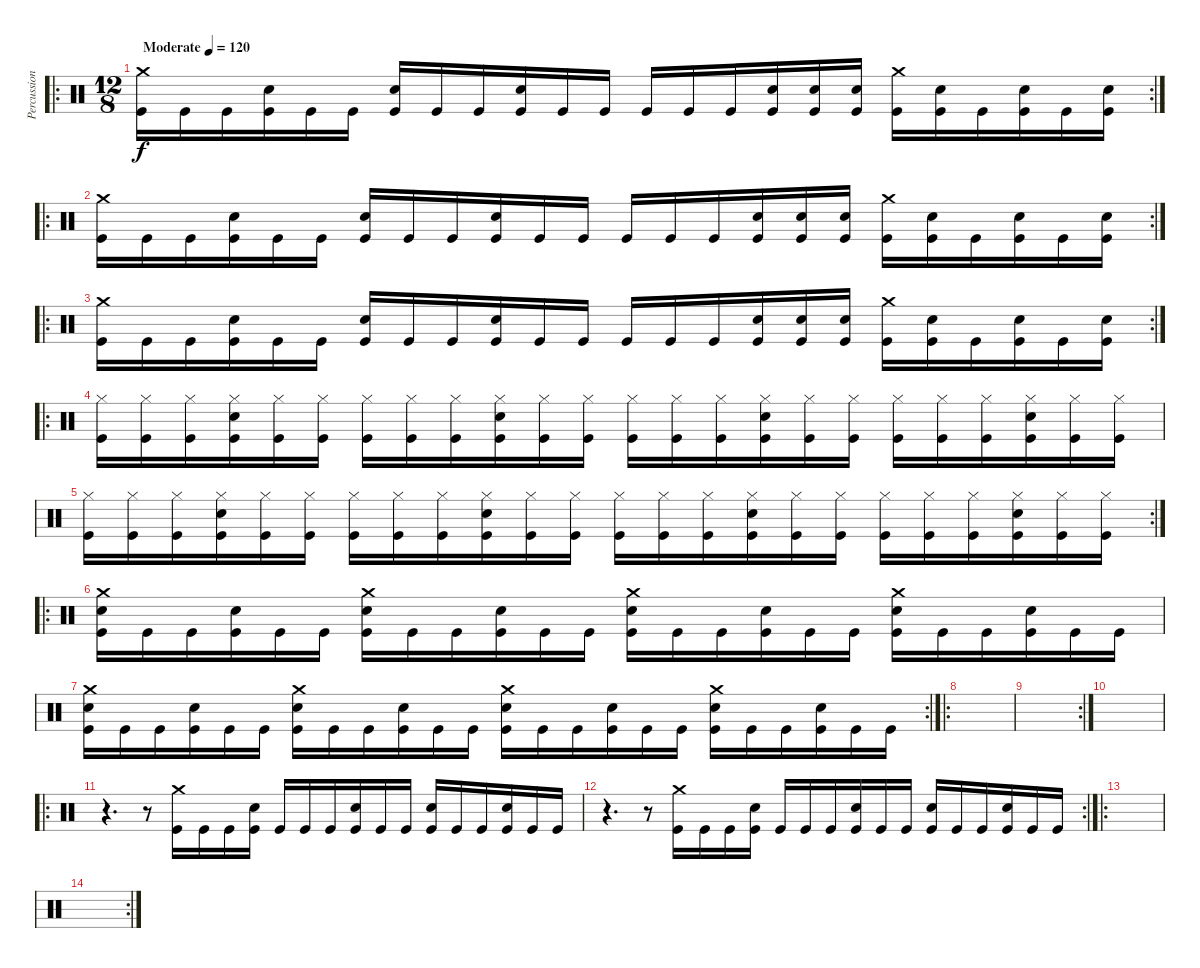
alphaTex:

\track ("Percussion" "Percussion") {instrument percussion}
\staff {score}
\articulation defaults
\ro
\rc 2
\ts (12 8)
\tempo (120 "Moderate")
\clef neutral
\ks c
("Crash medium (hit)" "Kick (hit)").16{dy f} "Kick (hit)".16 "Kick (hit)".16 ("Snare (hit) 2" "Kick (hit)").16 "Kick (hit)".16 "Kick (hit)".16 ("Snare (hit) 2" "Kick (hit)").16 "Kick (hit)".16 "Kick (hit)".16 ("Snare (hit) 2" "Kick (hit)").16 "Kick (hit)".16 "Kick (hit)".16 "Kick (hit)".16 "Kick (hit)".16 "Kick (hit)".16 ("Snare (hit) 2" "Kick (hit)").16 ("Snare (hit) 2" "Kick (hit)").16 ("Snare (hit) 2" "Kick (hit)").16 ("Crash medium (hit)" "Kick (hit)").16 ("Snare (hit) 2" "Kick (hit)").16 "Kick (hit)".16 ("Snare (hit) 2" "Kick (hit)").16 "Kick (hit)".16 ("Snare (hit) 2" "Kick (hit)").16 |
\ro
\rc 2
("Crash medium (hit)" "Kick (hit)").16 "Kick (hit)".16 "Kick (hit)".16 ("Snare (hit) 2" "Kick (hit)").16 "Kick (hit)".16 "Kick (hit)".16 ("Snare (hit) 2" "Kick (hit)").16 "Kick (hit)".16 "Kick (hit)".16 ("Snare (hit) 2" "Kick (hit)").16 "Kick (hit)".16 "Kick (hit)".16 "Kick (hit)".16 "Kick (hit)".16 "Kick (hit)".16 ("Snare (hit) 2" "Kick (hit)").16 ("Snare (hit) 2" "Kick (hit)").16 ("Snare (hit) 2" "Kick (hit)").16 ("Crash medium (hit)" "Kick (hit)").16 ("Snare (hit) 2" "Kick (hit)").16 "Kick (hit)".16 ("Snare (hit) 2" "Kick (hit)").16 "Kick (hit)".16 ("Snare (hit) 2" "Kick (hit)").16 |
\ro
\rc 2
("Crash medium (hit)" "Kick (hit)").16 "Kick (hit)".16 "Kick (hit)".16 ("Snare (hit) 2" "Kick (hit)").16 "Kick (hit)".16 "Kick (hit)".16 ("Snare (hit) 2" "Kick (hit)").16 "Kick (hit)".16 "Kick (hit)".16 ("Snare (hit) 2" "Kick (hit)").16 "Kick (hit)".16 "Kick (hit)".16 "Kick (hit)".16 "Kick (hit)".16 "Kick (hit)".16 ("Snare (hit) 2" "Kick (hit)").16 ("Snare (hit) 2" "Kick (hit)").16 ("Snare (hit) 2" "Kick (hit)").16 ("Crash medium (hit)" "Kick (hit)").16 ("Snare (hit) 2" "Kick (hit)").16 "Kick (hit)".16 ("Snare (hit) 2" "Kick (hit)").16 "Kick (hit)".16 ("Snare (hit) 2" "Kick (hit)").16 |
\ro
("Hi-Hat (closed)" "Kick (hit)").16 ("Hi-Hat (closed)" "Kick (hit)").16 ("Hi-Hat (closed)" "Kick (hit)").16 ("Hi-Hat (closed)" "Snare (hit) 2" "Kick (hit)").16 ("Hi-Hat (closed)" "Kick (hit)").16 ("Hi-Hat (closed)" "Kick (hit)").16 ("Hi-Hat (closed)" "Kick (hit)").16 ("Hi-Hat (closed)" "Kick (hit)").16 ("Hi-Hat (closed)" "Kick (hit)").16 ("Hi-Hat (closed)" "Snare (hit) 2" "Kick (hit)").16 ("Hi-Hat (closed)" "Kick (hit)").16 ("Hi-Hat (closed)" "Kick (hit)").16 ("Hi-Hat (closed)" "Kick (hit)").16 ("Hi-Hat (closed)" "Kick (hit)").16 ("Hi-Hat (closed)" "Kick (hit)").16 ("Hi-Hat (closed)" "Snare (hit) 2" "Kick (hit)").16 ("Hi-Hat (closed)" "Kick (hit)").16 ("Hi-Hat (closed)" "Kick (hit)").16 ("Hi-Hat (closed)" "Kick (hit)").16 ("Hi-Hat (closed)" "Kick (hit)").16 ("Hi-Hat (closed)" "Kick (hit)").16 ("Hi-Hat (closed)" "Snare (hit) 2" "Kick (hit)").16 ("Hi-Hat (closed)" "Kick (hit)").16 ("Hi-Hat (closed)" "Kick (hit)").16 |
\rc 2
("Hi-Hat (closed)" "Kick (hit)").16 ("Hi-Hat (closed)" "Kick (hit)").16 ("Hi-Hat (closed)" "Kick (hit)").16 ("Hi-Hat (closed)" "Snare (hit) 2" "Kick (hit)").16 ("Hi-Hat (closed)" "Kick (hit)").16 ("Hi-Hat (closed)" "Kick (hit)").16 ("Hi-Hat (closed)" "Kick (hit)").16 ("Hi-Hat (closed)" "Kick (hit)").16 ("Hi-Hat (closed)" "Kick (hit)").16 ("Hi-Hat (closed)" "Snare (hit) 2" "Kick (hit)").16 ("Hi-Hat (closed)" "Kick (hit)").16 ("Hi-Hat (closed)" "Kick (hit)").16 ("Hi-Hat (closed)" "Kick (hit)").16 ("Hi-Hat (closed)" "Kick (hit)").16 ("Hi-Hat (closed)" "Kick (hit)").16 ("Hi-Hat (closed)" "Snare (hit) 2" "Kick (hit)").16 ("Hi-Hat (closed)" "Kick (hit)").16 ("Hi-Hat (closed)" "Kick (hit)").16 ("Hi-Hat (closed)" "Kick (hit)").16 ("Hi-Hat (closed)" "Kick (hit)").16 ("Hi-Hat (closed)" "Kick (hit)").16 ("Hi-Hat (closed)" "Snare (hit) 2" "Kick (hit)").16 ("Hi-Hat (closed)" "Kick (hit)").16 ("Hi-Hat (closed)" "Kick (hit)").16 |
\ro
("Crash medium (hit)" "Snare (hit) 2" "Kick (hit)").16 "Kick (hit)".16 "Kick (hit)".16 ("Snare (hit) 2" "Kick (hit)").16 "Kick (hit)".16 "Kick (hit)".16 ("Crash medium (hit)" "Snare (hit) 2" "Kick (hit)").16 "Kick (hit)".16 "Kick (hit)".16 ("Snare (hit) 2" "Kick (hit)").16 "Kick (hit)".16 "Kick (hit)".16 ("Crash medium (hit)" "Snare (hit) 2" "Kick (hit)").16 "Kick (hit)".16 "Kick (hit)".16 ("Snare (hit) 2" "Kick (hit)").16 "Kick (hit)".16 "Kick (hit)".16 ("Crash medium (hit)" "Snare (hit) 2" "Kick (hit)").16 "Kick (hit)".16 "Kick (hit)".16 ("Snare (hit) 2" "Kick (hit)").16 "Kick (hit)".16 "Kick (hit)".16 |
\rc 2
("Crash medium (hit)" "Snare (hit) 2" "Kick (hit)").16 "Kick (hit)".16 "Kick (hit)".16 ("Snare (hit) 2" "Kick (hit)").16 "Kick (hit)".16 "Kick (hit)".16 ("Crash medium (hit)" "Snare (hit) 2" "Kick (hit)").16 "Kick (hit)".16 "Kick (hit)".16 ("Snare (hit) 2" "Kick (hit)").16 "Kick (hit)".16 "Kick (hit)".16 ("Crash medium (hit)" "Snare (hit) 2" "Kick (hit)").16 "Kick (hit)".16 "Kick (hit)".16 ("Snare (hit) 2" "Kick (hit)").16 "Kick (hit)".16 "Kick (hit)".16 ("Crash medium (hit)" "Snare (hit) 2" "Kick (hit)").16 "Kick (hit)".16 "Kick (hit)".16 ("Snare (hit) 2" "Kick (hit)").16 "Kick (hit)".16 "Kick (hit)".16 |
\ro
|
\rc 2
|
|
\ro
r.4{d} r.8 ("Crash medium (hit)" "Kick (hit)").16 "Kick (hit)".16 "Kick (hit)".16 ("Snare (hit) 2" "Kick (hit)").16 "Kick (hit)".16 "Kick (hit)".16 "Kick (hit)".16 ("Snare (hit) 2" "Kick (hit)").16 "Kick (hit)".16 "Kick (hit)".16 ("Snare (hit) 2" "Kick (hit)").16 "Kick (hit)".16 "Kick (hit)".16 ("Snare (hit) 2" "Kick (hit)").16 "Kick (hit)".16 "Kick (hit)".16 |
\rc 2
r.4{d} r.8 ("Crash medium (hit)" "Kick (hit)").16 "Kick (hit)".16 "Kick (hit)".16 ("Snare (hit) 2" "Kick (hit)").16 "Kick (hit)".16 "Kick (hit)".16 "Kick (hit)".16 ("Snare (hit) 2" "Kick (hit)").16 "Kick (hit)".16 "Kick (hit)".16 ("Snare (hit) 2" "Kick (hit)").16 "Kick (hit)".16 "Kick (hit)".16 ("Snare (hit) 2" "Kick (hit)").16 "Kick (hit)".16 "Kick (hit)".16 |
\ro
|
\rc 2
